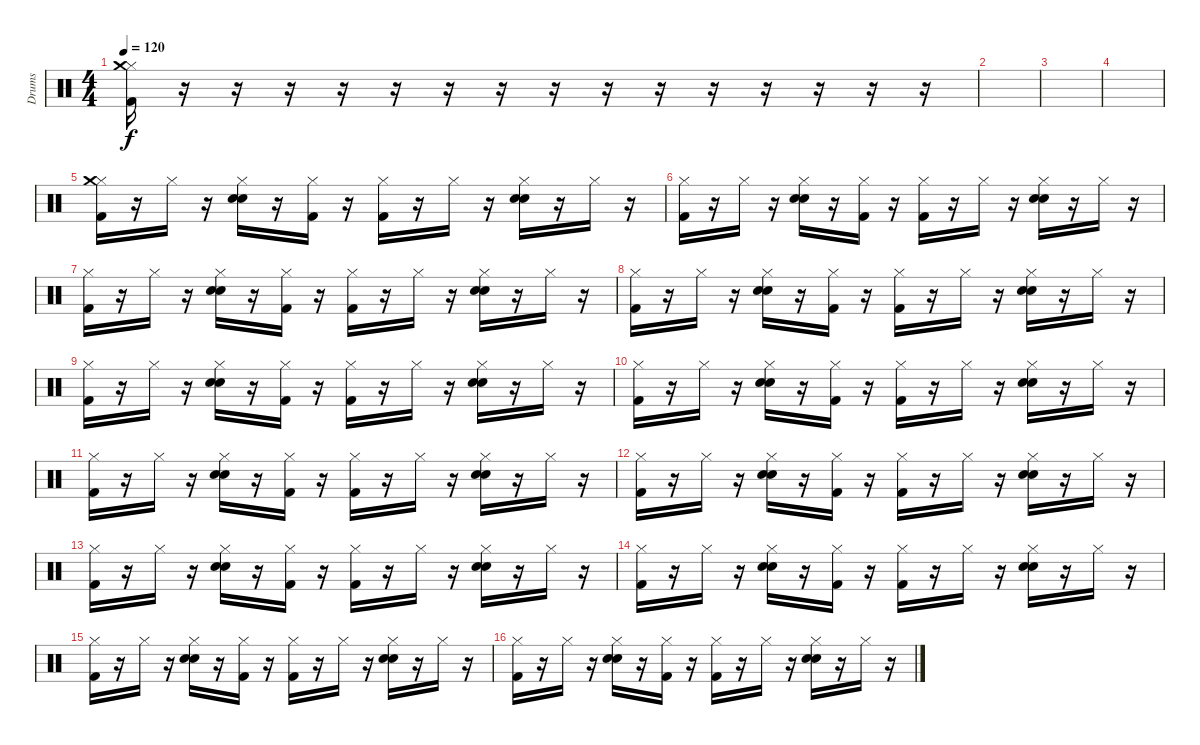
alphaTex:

\track ("Drums" "Drums") {instrument percussion}
\staff {score}
\articulation defaults
\ts (4 4)
\tempo 120
\clef neutral
\ks c
("Hi-Hat (closed)" "Crash medium (hit)" "Kick (hit) 2").16{dy f} r.16 r.16 r.16 r.16 r.16 r.16 r.16 r.16 r.16 r.16 r.16 r.16 r.16 r.16 r.16 |
|
|
|
("Hi-Hat (closed)" "Crash medium (hit)" "Kick (hit) 2").16 r.16 "Hi-Hat (closed)".16 r.16 ("Hi-Hat (closed)" "Electric Snare (hit)" "Snare (hit) 2").16 r.16 ("Hi-Hat (closed)" "Kick (hit) 2").16 r.16 ("Hi-Hat (closed)" "Kick (hit) 2").16 r.16 "Hi-Hat (closed)".16 r.16 ("Hi-Hat (closed)" "Electric Snare (hit)" "Snare (hit) 2").16 r.16 "Hi-Hat (closed)".16 r.16 |
("Hi-Hat (closed)" "Kick (hit) 2").16 r.16 "Hi-Hat (closed)".16 r.16 ("Hi-Hat (closed)" "Electric Snare (hit)" "Snare (hit) 2").16 r.16 ("Hi-Hat (closed)" "Kick (hit) 2").16 r.16 ("Hi-Hat (closed)" "Kick (hit) 2").16 r.16 "Hi-Hat (closed)".16 r.16 ("Hi-Hat (closed)" "Electric Snare (hit)" "Snare (hit) 2").16 r.16 "Hi-Hat (closed)".16 r.16 |
("Hi-Hat (closed)" "Kick (hit) 2").16 r.16 "Hi-Hat (closed)".16 r.16 ("Hi-Hat (closed)" "Electric Snare (hit)" "Snare (hit) 2").16 r.16 ("Hi-Hat (closed)" "Kick (hit) 2").16 r.16 ("Hi-Hat (closed)" "Kick (hit) 2").16 r.16 "Hi-Hat (closed)".16 r.16 ("Hi-Hat (closed)" "Electric Snare (hit)" "Snare (hit) 2").16 r.16 "Hi-Hat (closed)".16 r.16 |
("Hi-Hat (closed)" "Kick (hit) 2").16 r.16 "Hi-Hat (closed)".16 r.16 ("Hi-Hat (closed)" "Electric Snare (hit)" "Snare (hit) 2").16 r.16 ("Hi-Hat (closed)" "Kick (hit) 2").16 r.16 ("Hi-Hat (closed)" "Kick (hit) 2").16 r.16 "Hi-Hat (closed)".16 r.16 ("Hi-Hat (closed)" "Electric Snare (hit)" "Snare (hit) 2").16 r.16 "Hi-Hat (closed)".16 r.16 |
("Hi-Hat (closed)" "Kick (hit) 2").16 r.16 "Hi-Hat (closed)".16 r.16 ("Hi-Hat (closed)" "Electric Snare (hit)" "Snare (hit) 2").16 r.16 ("Hi-Hat (closed)" "Kick (hit) 2").16 r.16 ("Hi-Hat (closed)" "Kick (hit) 2").16 r.16 "Hi-Hat (closed)".16 r.16 ("Hi-Hat (closed)" "Electric Snare (hit)" "Snare (hit) 2").16 r.16 "Hi-Hat (closed)".16 r.16 |
("Hi-Hat (closed)" "Kick (hit) 2").16 r.16 "Hi-Hat (closed)".16 r.16 ("Hi-Hat (closed)" "Electric Snare (hit)" "Snare (hit) 2").16 r.16 ("Hi-Hat (closed)" "Kick (hit) 2").16 r.16 ("Hi-Hat (closed)" "Kick (hit) 2").16 r.16 "Hi-Hat (closed)".16 r.16 ("Hi-Hat (closed)" "Electric Snare (hit)" "Snare (hit) 2").16 r.16 "Hi-Hat (closed)".16 r.16 |
("Hi-Hat (closed)" "Kick (hit) 2").16 r.16 "Hi-Hat (closed)".16 r.16 ("Hi-Hat (closed)" "Electric Snare (hit)" "Snare (hit) 2").16 r.16 ("Hi-Hat (closed)" "Kick (hit) 2").16 r.16 ("Hi-Hat (closed)" "Kick (hit) 2").16 r.16 "Hi-Hat (closed)".16 r.16 ("Hi-Hat (closed)" "Electric Snare (hit)" "Snare (hit) 2").16 r.16 "Hi-Hat (closed)".16 r.16 |
("Hi-Hat (closed)" "Kick (hit) 2").16 r.16 "Hi-Hat (closed)".16 r.16 ("Hi-Hat (closed)" "Electric Snare (hit)" "Snare (hit) 2").16 r.16 ("Hi-Hat (closed)" "Kick (hit) 2").16 r.16 ("Hi-Hat (closed)" "Kick (hit) 2").16 r.16 "Hi-Hat (closed)".16 r.16 ("Hi-Hat (closed)" "Electric Snare (hit)" "Snare (hit) 2").16 r.16 "Hi-Hat (closed)".16 r.16 |
("Hi-Hat (closed)" "Kick (hit) 2").16 r.16 "Hi-Hat (closed)".16 r.16 ("Hi-Hat (closed)" "Electric Snare (hit)" "Snare (hit) 2").16 r.16 ("Hi-Hat (closed)" "Kick (hit) 2").16 r.16 ("Hi-Hat (closed)" "Kick (hit) 2").16 r.16 "Hi-Hat (closed)".16 r.16 ("Hi-Hat (closed)" "Electric Snare (hit)" "Snare (hit) 2").16 r.16 "Hi-Hat (closed)".16 r.16 |
("Hi-Hat (closed)" "Kick (hit) 2").16 r.16 "Hi-Hat (closed)".16 r.16 ("Hi-Hat (closed)" "Electric Snare (hit)" "Snare (hit) 2").16 r.16 ("Hi-Hat (closed)" "Kick (hit) 2").16 r.16 ("Hi-Hat (closed)" "Kick (hit) 2").16 r.16 "Hi-Hat (closed)".16 r.16 ("Hi-Hat (closed)" "Electric Snare (hit)" "Snare (hit) 2").16 r.16 "Hi-Hat (closed)".16 r.16 |
("Hi-Hat (closed)" "Kick (hit) 2").16 r.16 "Hi-Hat (closed)".16 r.16 ("Hi-Hat (closed)" "Electric Snare (hit)" "Snare (hit) 2").16 r.16 ("Hi-Hat (closed)" "Kick (hit) 2").16 r.16 ("Hi-Hat (closed)" "Kick (hit) 2").16 r.16 "Hi-Hat (closed)".16 r.16 ("Hi-Hat (closed)" "Electric Snare (hit)" "Snare (hit) 2").16 r.16 "Hi-Hat (closed)".16 r.16 |
("Hi-Hat (closed)" "Kick (hit) 2").16 r.16 "Hi-Hat (closed)".16 r.16 ("Hi-Hat (closed)" "Electric Snare (hit)" "Snare (hit) 2").16 r.16 ("Hi-Hat (closed)" "Kick (hit) 2").16 r.16 ("Hi-Hat (closed)" "Kick (hit) 2").16 r.16 "Hi-Hat (closed)".16 r.16 ("Hi-Hat (closed)" "Electric Snare (hit)" "Snare (hit) 2").16 r.16 "Hi-Hat (closed)".16 r.16
